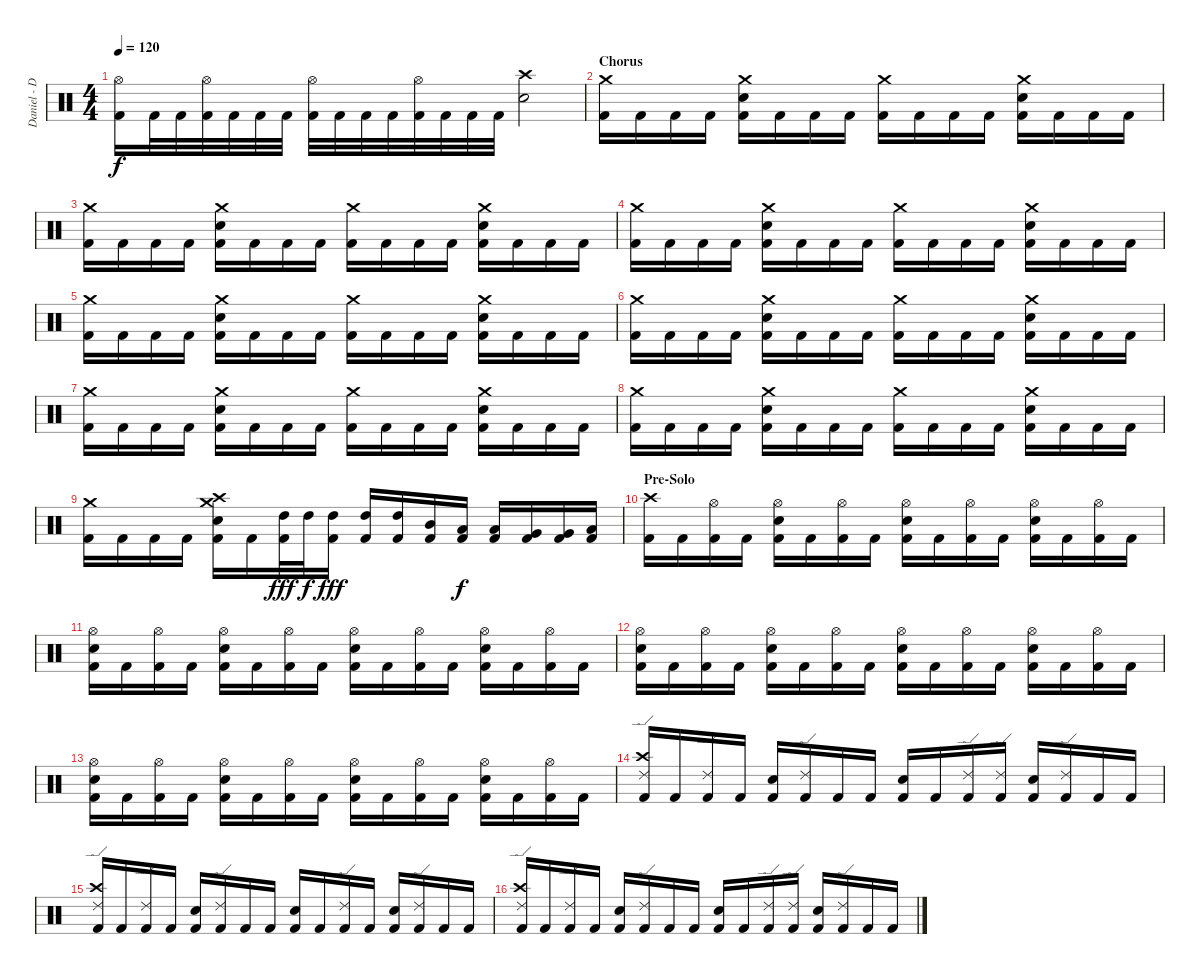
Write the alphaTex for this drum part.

\track ("Daniel - Drums" "Daniel - D") {instrument percussion}
\staff {score}
\articulation defaults
\ts (4 4)
\tempo 120
\clef neutral
\ks c
("Hi-Hat (open)" "Kick (hit) 2").16{dy f} "Kick (hit) 2".32 "Kick (hit) 2".32 ("Hi-Hat (open)" "Kick (hit) 2").32 "Kick (hit) 2".32 "Kick (hit) 2".32 "Kick (hit) 2".32 ("Hi-Hat (open)" "Kick (hit) 2").32 "Kick (hit) 2".32 "Kick (hit) 2".32 "Kick (hit) 2".32 ("Hi-Hat (open)" "Kick (hit) 2").32 "Kick (hit) 2".32 "Kick (hit) 2".32 "Kick (hit) 2".32 ("Crash high (hit)" "Electric Snare (hit)").2 |
\section ("" "Chorus")
("Crash medium (hit)" "Kick (hit) 2").16 "Kick (hit) 2".16 "Kick (hit) 2".16 "Kick (hit) 2".16 ("Crash medium (hit)" "Electric Snare (hit)" "Kick (hit) 2").16 "Kick (hit) 2".16 "Kick (hit) 2".16 "Kick (hit) 2".16 ("Crash medium (hit)" "Kick (hit) 2").16 "Kick (hit) 2".16 "Kick (hit) 2".16 "Kick (hit) 2".16 ("Crash medium (hit)" "Electric Snare (hit)" "Kick (hit) 2").16 "Kick (hit) 2".16 "Kick (hit) 2".16 "Kick (hit) 2".16 |
("Crash medium (hit)" "Kick (hit) 2").16 "Kick (hit) 2".16 "Kick (hit) 2".16 "Kick (hit) 2".16 ("Crash medium (hit)" "Electric Snare (hit)" "Kick (hit) 2").16 "Kick (hit) 2".16 "Kick (hit) 2".16 "Kick (hit) 2".16 ("Crash medium (hit)" "Kick (hit) 2").16 "Kick (hit) 2".16 "Kick (hit) 2".16 "Kick (hit) 2".16 ("Crash medium (hit)" "Electric Snare (hit)" "Kick (hit) 2").16 "Kick (hit) 2".16 "Kick (hit) 2".16 "Kick (hit) 2".16 |
("Crash medium (hit)" "Kick (hit) 2").16 "Kick (hit) 2".16 "Kick (hit) 2".16 "Kick (hit) 2".16 ("Crash medium (hit)" "Electric Snare (hit)" "Kick (hit) 2").16 "Kick (hit) 2".16 "Kick (hit) 2".16 "Kick (hit) 2".16 ("Crash medium (hit)" "Kick (hit) 2").16 "Kick (hit) 2".16 "Kick (hit) 2".16 "Kick (hit) 2".16 ("Crash medium (hit)" "Electric Snare (hit)" "Kick (hit) 2").16 "Kick (hit) 2".16 "Kick (hit) 2".16 "Kick (hit) 2".16 |
("Crash medium (hit)" "Kick (hit) 2").16 "Kick (hit) 2".16 "Kick (hit) 2".16 "Kick (hit) 2".16 ("Crash medium (hit)" "Electric Snare (hit)" "Kick (hit) 2").16 "Kick (hit) 2".16 "Kick (hit) 2".16 "Kick (hit) 2".16 ("Crash medium (hit)" "Kick (hit) 2").16 "Kick (hit) 2".16 "Kick (hit) 2".16 "Kick (hit) 2".16 ("Crash medium (hit)" "Electric Snare (hit)" "Kick (hit) 2").16 "Kick (hit) 2".16 "Kick (hit) 2".16 "Kick (hit) 2".16 |
("Crash medium (hit)" "Kick (hit) 2").16 "Kick (hit) 2".16 "Kick (hit) 2".16 "Kick (hit) 2".16 ("Crash medium (hit)" "Electric Snare (hit)" "Kick (hit) 2").16 "Kick (hit) 2".16 "Kick (hit) 2".16 "Kick (hit) 2".16 ("Crash medium (hit)" "Kick (hit) 2").16 "Kick (hit) 2".16 "Kick (hit) 2".16 "Kick (hit) 2".16 ("Crash medium (hit)" "Electric Snare (hit)" "Kick (hit) 2").16 "Kick (hit) 2".16 "Kick (hit) 2".16 "Kick (hit) 2".16 |
("Crash medium (hit)" "Kick (hit) 2").16 "Kick (hit) 2".16 "Kick (hit) 2".16 "Kick (hit) 2".16 ("Crash medium (hit)" "Electric Snare (hit)" "Kick (hit) 2").16 "Kick (hit) 2".16 "Kick (hit) 2".16 "Kick (hit) 2".16 ("Crash medium (hit)" "Kick (hit) 2").16 "Kick (hit) 2".16 "Kick (hit) 2".16 "Kick (hit) 2".16 ("Crash medium (hit)" "Electric Snare (hit)" "Kick (hit) 2").16 "Kick (hit) 2".16 "Kick (hit) 2".16 "Kick (hit) 2".16 |
("Crash medium (hit)" "Kick (hit) 2").16 "Kick (hit) 2".16 "Kick (hit) 2".16 "Kick (hit) 2".16 ("Crash medium (hit)" "Electric Snare (hit)" "Kick (hit) 2").16 "Kick (hit) 2".16 "Kick (hit) 2".16 "Kick (hit) 2".16 ("Crash medium (hit)" "Kick (hit) 2").16 "Kick (hit) 2".16 "Kick (hit) 2".16 "Kick (hit) 2".16 ("Crash medium (hit)" "Electric Snare (hit)" "Kick (hit) 2").16 "Kick (hit) 2".16 "Kick (hit) 2".16 "Kick (hit) 2".16 |
("Crash medium (hit)" "Kick (hit) 2").16 "Kick (hit) 2".16 "Kick (hit) 2".16 "Kick (hit) 2".16 ("Crash medium (hit)" "Crash high (hit)" "Electric Snare (hit)" "Kick (hit) 2").16 "Kick (hit) 2".16 ("High Tom (hit)" "Kick (hit) 2").32{dy fff} "High Tom (hit)".32{dy f} ("High Tom (hit)" "Kick (hit) 2").16{dy fff} ("High Tom (hit)" "Kick (hit) 2").16 ("High Tom (hit)" "Kick (hit) 2").16 ("Mid Tom (hit)" "Kick (hit) 2").16 ("Low Tom (hit)" "Kick (hit) 2").16{dy f} ("Low Tom (hit)" "Kick (hit) 2").16 ("Very Low Tom (hit)" "Kick (hit) 2").16 ("Very Low Tom (hit)" "Kick (hit) 2").16 ("Low Floor Tom (hit)" "Kick (hit) 2").16 |
\section ("" "Pre-Solo")
("Crash high (hit)" "Kick (hit) 2").16 "Kick (hit) 2".16 ("Hi-Hat (open)" "Kick (hit) 2").16 "Kick (hit) 2".16 ("Hi-Hat (open)" "Electric Snare (hit)" "Kick (hit) 2").16 "Kick (hit) 2".16 ("Hi-Hat (open)" "Kick (hit) 2").16 "Kick (hit) 2".16 ("Hi-Hat (open)" "Electric Snare (hit)" "Kick (hit) 2").16 "Kick (hit) 2".16 ("Hi-Hat (open)" "Kick (hit) 2").16 "Kick (hit) 2".16 ("Hi-Hat (open)" "Electric Snare (hit)" "Kick (hit) 2").16 "Kick (hit) 2".16 ("Hi-Hat (open)" "Kick (hit) 2").16 "Kick (hit) 2".16 |
("Hi-Hat (open)" "Electric Snare (hit)" "Kick (hit) 2").16 "Kick (hit) 2".16 ("Hi-Hat (open)" "Kick (hit) 2").16 "Kick (hit) 2".16 ("Hi-Hat (open)" "Electric Snare (hit)" "Kick (hit) 2").16 "Kick (hit) 2".16 ("Hi-Hat (open)" "Kick (hit) 2").16 "Kick (hit) 2".16 ("Hi-Hat (open)" "Electric Snare (hit)" "Kick (hit) 2").16 "Kick (hit) 2".16 ("Hi-Hat (open)" "Kick (hit) 2").16 "Kick (hit) 2".16 ("Hi-Hat (open)" "Electric Snare (hit)" "Kick (hit) 2").16 "Kick (hit) 2".16 ("Hi-Hat (open)" "Kick (hit) 2").16 "Kick (hit) 2".16 |
("Hi-Hat (open)" "Electric Snare (hit)" "Kick (hit) 2").16 "Kick (hit) 2".16 ("Hi-Hat (open)" "Kick (hit) 2").16 "Kick (hit) 2".16 ("Hi-Hat (open)" "Electric Snare (hit)" "Kick (hit) 2").16 "Kick (hit) 2".16 ("Hi-Hat (open)" "Kick (hit) 2").16 "Kick (hit) 2".16 ("Hi-Hat (open)" "Electric Snare (hit)" "Kick (hit) 2").16 "Kick (hit) 2".16 ("Hi-Hat (open)" "Kick (hit) 2").16 "Kick (hit) 2".16 ("Hi-Hat (open)" "Electric Snare (hit)" "Kick (hit) 2").16 "Kick (hit) 2".16 ("Hi-Hat (open)" "Kick (hit) 2").16 "Kick (hit) 2".16 |
("Hi-Hat (open)" "Electric Snare (hit)" "Kick (hit) 2").16 "Kick (hit) 2".16 ("Hi-Hat (open)" "Kick (hit) 2").16 "Kick (hit) 2".16 ("Hi-Hat (open)" "Electric Snare (hit)" "Kick (hit) 2").16 "Kick (hit) 2".16 ("Hi-Hat (open)" "Kick (hit) 2").16 "Kick (hit) 2".16 ("Hi-Hat (open)" "Electric Snare (hit)" "Kick (hit) 2").16 "Kick (hit) 2".16 ("Hi-Hat (open)" "Kick (hit) 2").16 "Kick (hit) 2".16 ("Hi-Hat (open)" "Electric Snare (hit)" "Kick (hit) 2").16 "Kick (hit) 2".16 ("Hi-Hat (open)" "Kick (hit) 2").16 "Kick (hit) 2".16 |
("Crash high (hit)" "Ride (edge) 2" "Kick (hit) 2").16 "Kick (hit) 2".16 ("Ride (edge) 2" "Kick (hit) 2").16 "Kick (hit) 2".16 ("Electric Snare (hit)" "Kick (hit) 2").16 ("Ride (edge) 2" "Kick (hit) 2").16 "Kick (hit) 2".16 "Kick (hit) 2".16 ("Electric Snare (hit)" "Kick (hit) 2").16 "Kick (hit) 2".16 ("Ride (edge) 2" "Kick (hit) 2").16 ("Ride (edge) 2" "Kick (hit) 2").16 ("Electric Snare (hit)" "Kick (hit) 2").16 ("Ride (edge) 2" "Kick (hit) 2").16 "Kick (hit) 2".16 "Kick (hit) 2".16 |
("Crash high (hit)" "Ride (edge) 2" "Kick (hit) 2").16 "Kick (hit) 2".16 ("Ride (edge) 2" "Kick (hit) 2").16 "Kick (hit) 2".16 ("Electric Snare (hit)" "Kick (hit) 2").16 ("Ride (edge) 2" "Kick (hit) 2").16 "Kick (hit) 2".16 "Kick (hit) 2".16 ("Electric Snare (hit)" "Kick (hit) 2").16 "Kick (hit) 2".16 ("Ride (edge) 2" "Kick (hit) 2").16 "Kick (hit) 2".16 ("Electric Snare (hit)" "Kick (hit) 2").16 ("Ride (edge) 2" "Kick (hit) 2").16 "Kick (hit) 2".16 "Kick (hit) 2".16 |
("Crash high (hit)" "Ride (edge) 2" "Kick (hit) 2").16 "Kick (hit) 2".16 ("Ride (edge) 2" "Kick (hit) 2").16 "Kick (hit) 2".16 ("Electric Snare (hit)" "Kick (hit) 2").16 ("Ride (edge) 2" "Kick (hit) 2").16 "Kick (hit) 2".16 "Kick (hit) 2".16 ("Electric Snare (hit)" "Kick (hit) 2").16 "Kick (hit) 2".16 ("Ride (edge) 2" "Kick (hit) 2").16 ("Ride (edge) 2" "Kick (hit) 2").16 ("Electric Snare (hit)" "Kick (hit) 2").16 ("Ride (edge) 2" "Kick (hit) 2").16 "Kick (hit) 2".16 "Kick (hit) 2".16
